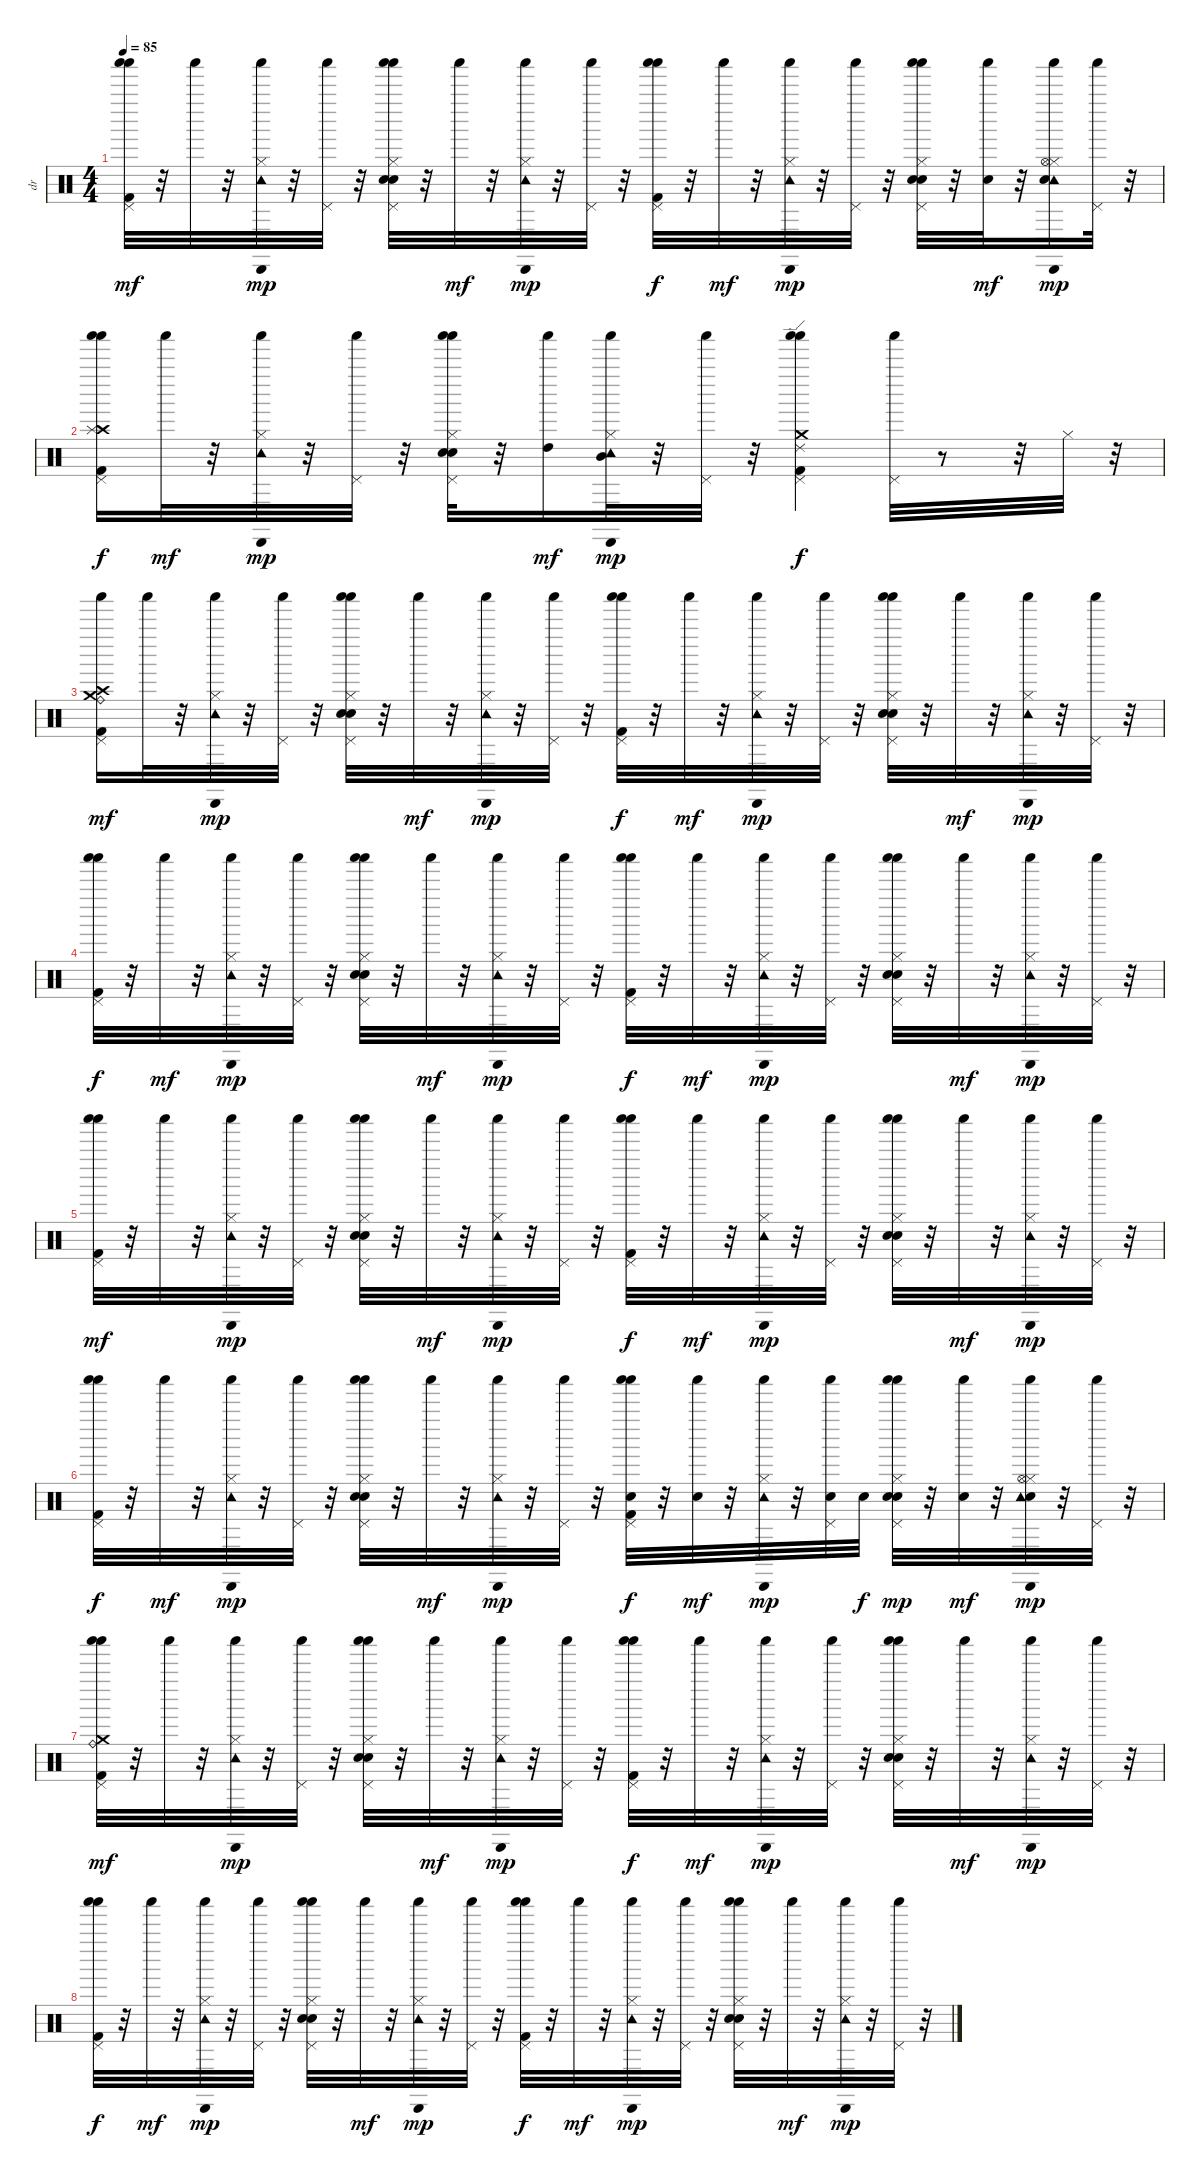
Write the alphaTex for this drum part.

\track ("dr" "dr") {instrument percussion}
\staff {score}
\articulation defaults
\ts (4 4)
\tempo 85
\clef neutral
\ks c
("Pedal Hi-Hat (hit)" "Shaker (hit)" "Shaker (hit)" "Kick (hit) 2").32{dy mf} r.32 "Shaker (hit)".32 r.32 ("Hi-Hat (closed)" "Cabasa (hit)" "Tambourine (hit)" "Shaker (hit)").32{dy mp} r.32 ("Pedal Hi-Hat (hit)" "Shaker (hit)").32 r.32 ("Pedal Hi-Hat (hit)" "Shaker (hit)" "Shaker (hit)" "Hi-Hat (closed)" "Electric Snare (hit)" "Snare (hit) 2").32 r.32 "Shaker (hit)".32{dy mf} r.32 ("Hi-Hat (closed)" "Cabasa (hit)" "Tambourine (hit)" "Shaker (hit)").32{dy mp} r.32 ("Pedal Hi-Hat (hit)" "Shaker (hit)").32 r.32 ("Pedal Hi-Hat (hit)" "Shaker (hit)" "Shaker (hit)" "Kick (hit) 2").32{dy f} r.32 "Shaker (hit)".32{dy mf} r.32 ("Hi-Hat (closed)" "Cabasa (hit)" "Tambourine (hit)" "Shaker (hit)").32{dy mp} r.32 ("Pedal Hi-Hat (hit)" "Shaker (hit)").32 r.32 ("Electric Snare (hit)" "Pedal Hi-Hat (hit)" "Shaker (hit)" "Shaker (hit)" "Hi-Hat (closed)" "Snare (hit) 2").32 r.32 ("Shaker (hit)" "Snare (hit) 2").32{dy mf} r.32 ("Hi-Hat (closed)" "Cabasa (hit)" "Tambourine (hit)" "Shaker (hit)" "Hi-Hat (open)" "Snare (hit) 2").16{dy mp} ("Pedal Hi-Hat (hit)" "Shaker (hit)").32 r.32 |
("Pedal Hi-Hat (hit)" "Shaker (hit)" "Shaker (hit)" "Kick (hit) 2" "Crash high (hit)" "Splash (hit)").16{dy f} "Shaker (hit)".32{dy mf} r.32 ("Hi-Hat (closed)" "Cabasa (hit)" "Tambourine (hit)" "Shaker (hit)").32{dy mp} r.32 ("Pedal Hi-Hat (hit)" "Shaker (hit)").32 r.32 ("Electric Snare (hit)" "Pedal Hi-Hat (hit)" "Shaker (hit)" "Shaker (hit)" "Hi-Hat (closed)" "Snare (hit) 2").32 r.32 ("Shaker (hit)" "High Tom (hit)").16{dy mf} ("Hi-Hat (closed)" "Cabasa (hit)" "Tambourine (hit)" "Shaker (hit)" "Mid Tom (hit)").32{dy mp} r.32 ("Pedal Hi-Hat (hit)" "Shaker (hit)").32 r.32 ("Pedal Hi-Hat (hit)" "Shaker (hit)" "Shaker (hit)" "Kick (hit) 2" "Ride (edge) 2" "Crash medium (hit)").4{dy f} ("Shaker (hit)" "Pedal Hi-Hat (hit)").32 r.8 r.32 "Hi-Hat (closed)".32 r.32 |
("Kick (hit) 2" "Crash high (hit)" "Ride (bell)" "Crash medium (hit)" "Pedal Hi-Hat (hit)" "Shaker (hit)").16{dy mf} "Shaker (hit)".32 r.32 ("Hi-Hat (closed)" "Tambourine (hit)" "Cabasa (hit)" "Shaker (hit)").32{dy mp} r.32 ("Pedal Hi-Hat (hit)" "Shaker (hit)").32 r.32 ("Electric Snare (hit)" "Pedal Hi-Hat (hit)" "Shaker (hit)" "Shaker (hit)" "Hi-Hat (closed)" "Snare (hit) 2").32 r.32 "Shaker (hit)".32{dy mf} r.32 ("Hi-Hat (closed)" "Tambourine (hit)" "Cabasa (hit)" "Shaker (hit)").32{dy mp} r.32 ("Pedal Hi-Hat (hit)" "Shaker (hit)").32 r.32 ("Pedal Hi-Hat (hit)" "Shaker (hit)" "Shaker (hit)" "Kick (hit) 2").32{dy f} r.32 "Shaker (hit)".32{dy mf} r.32 ("Hi-Hat (closed)" "Tambourine (hit)" "Cabasa (hit)" "Shaker (hit)").32{dy mp} r.32 ("Pedal Hi-Hat (hit)" "Shaker (hit)").32 r.32 ("Electric Snare (hit)" "Pedal Hi-Hat (hit)" "Shaker (hit)" "Shaker (hit)" "Hi-Hat (closed)" "Snare (hit) 2").32 r.32 "Shaker (hit)".32{dy mf} r.32 ("Hi-Hat (closed)" "Tambourine (hit)" "Cabasa (hit)" "Shaker (hit)").32{dy mp} r.32 ("Pedal Hi-Hat (hit)" "Shaker (hit)").32 r.32 |
("Pedal Hi-Hat (hit)" "Shaker (hit)" "Shaker (hit)" "Kick (hit) 2").32{dy f} r.32 "Shaker (hit)".32{dy mf} r.32 ("Hi-Hat (closed)" "Tambourine (hit)" "Cabasa (hit)" "Shaker (hit)").32{dy mp} r.32 ("Pedal Hi-Hat (hit)" "Shaker (hit)").32 r.32 ("Electric Snare (hit)" "Pedal Hi-Hat (hit)" "Shaker (hit)" "Shaker (hit)" "Hi-Hat (closed)" "Snare (hit) 2").32 r.32 "Shaker (hit)".32{dy mf} r.32 ("Hi-Hat (closed)" "Tambourine (hit)" "Cabasa (hit)" "Shaker (hit)").32{dy mp} r.32 ("Pedal Hi-Hat (hit)" "Shaker (hit)").32 r.32 ("Pedal Hi-Hat (hit)" "Shaker (hit)" "Shaker (hit)" "Kick (hit) 2").32{dy f} r.32 "Shaker (hit)".32{dy mf} r.32 ("Hi-Hat (closed)" "Tambourine (hit)" "Cabasa (hit)" "Shaker (hit)").32{dy mp} r.32 ("Pedal Hi-Hat (hit)" "Shaker (hit)").32 r.32 ("Electric Snare (hit)" "Pedal Hi-Hat (hit)" "Shaker (hit)" "Shaker (hit)" "Hi-Hat (closed)" "Snare (hit) 2").32 r.32 "Shaker (hit)".32{dy mf} r.32 ("Hi-Hat (closed)" "Tambourine (hit)" "Cabasa (hit)" "Shaker (hit)").32{dy mp} r.32 ("Pedal Hi-Hat (hit)" "Shaker (hit)").32 r.32 |
("Pedal Hi-Hat (hit)" "Shaker (hit)" "Shaker (hit)" "Kick (hit) 2").32{dy mf} r.32 "Shaker (hit)".32 r.32 ("Hi-Hat (closed)" "Cabasa (hit)" "Tambourine (hit)" "Shaker (hit)").32{dy mp} r.32 ("Pedal Hi-Hat (hit)" "Shaker (hit)").32 r.32 ("Electric Snare (hit)" "Pedal Hi-Hat (hit)" "Shaker (hit)" "Shaker (hit)" "Hi-Hat (closed)" "Snare (hit) 2").32 r.32 "Shaker (hit)".32{dy mf} r.32 ("Hi-Hat (closed)" "Tambourine (hit)" "Cabasa (hit)" "Shaker (hit)").32{dy mp} r.32 ("Pedal Hi-Hat (hit)" "Shaker (hit)").32 r.32 ("Pedal Hi-Hat (hit)" "Shaker (hit)" "Shaker (hit)" "Kick (hit) 2").32{dy f} r.32 "Shaker (hit)".32{dy mf} r.32 ("Hi-Hat (closed)" "Cabasa (hit)" "Tambourine (hit)" "Shaker (hit)").32{dy mp} r.32 ("Pedal Hi-Hat (hit)" "Shaker (hit)").32 r.32 ("Electric Snare (hit)" "Pedal Hi-Hat (hit)" "Shaker (hit)" "Shaker (hit)" "Hi-Hat (closed)" "Snare (hit) 2").32 r.32 "Shaker (hit)".32{dy mf} r.32 ("Hi-Hat (closed)" "Cabasa (hit)" "Tambourine (hit)" "Shaker (hit)").32{dy mp} r.32 ("Pedal Hi-Hat (hit)" "Shaker (hit)").32 r.32 |
("Pedal Hi-Hat (hit)" "Shaker (hit)" "Shaker (hit)" "Kick (hit) 2").32{dy f} r.32 "Shaker (hit)".32{dy mf} r.32 ("Hi-Hat (closed)" "Cabasa (hit)" "Tambourine (hit)" "Shaker (hit)").32{dy mp} r.32 ("Pedal Hi-Hat (hit)" "Shaker (hit)").32 r.32 ("Pedal Hi-Hat (hit)" "Shaker (hit)" "Shaker (hit)" "Hi-Hat (closed)" "Electric Snare (hit)" "Snare (hit) 2").32 r.32 "Shaker (hit)".32{dy mf} r.32 ("Hi-Hat (closed)" "Cabasa (hit)" "Tambourine (hit)" "Shaker (hit)").32{dy mp} r.32 ("Pedal Hi-Hat (hit)" "Shaker (hit)").32 r.32 ("Pedal Hi-Hat (hit)" "Shaker (hit)" "Shaker (hit)" "Kick (hit) 2" "Snare (hit) 2").32{dy f} r.32 ("Shaker (hit)" "Snare (hit) 2").32{dy mf} r.32 ("Hi-Hat (closed)" "Cabasa (hit)" "Tambourine (hit)" "Shaker (hit)").32{dy mp} r.32 ("Pedal Hi-Hat (hit)" "Shaker (hit)" "Snare (hit) 2").32 "Snare (hit) 2".32{dy f} ("Electric Snare (hit)" "Pedal Hi-Hat (hit)" "Shaker (hit)" "Shaker (hit)" "Hi-Hat (closed)" "Snare (hit) 2").32{dy mp} r.32 ("Shaker (hit)" "Snare (hit) 2").32{dy mf} r.32 ("Snare (hit) 2" "Hi-Hat (closed)" "Cabasa (hit)" "Tambourine (hit)" "Shaker (hit)" "Hi-Hat (open)").32{dy mp} r.32 ("Pedal Hi-Hat (hit)" "Shaker (hit)").32 r.32 |
("Kick (hit) 2" "Ride (bell)" "Crash medium (hit)" "Pedal Hi-Hat (hit)" "Shaker (hit)" "Shaker (hit)").32{dy mf} r.32 "Shaker (hit)".32 r.32 ("Hi-Hat (closed)" "Tambourine (hit)" "Cabasa (hit)" "Shaker (hit)").32{dy mp} r.32 ("Pedal Hi-Hat (hit)" "Shaker (hit)").32 r.32 ("Electric Snare (hit)" "Pedal Hi-Hat (hit)" "Shaker (hit)" "Shaker (hit)" "Hi-Hat (closed)" "Snare (hit) 2").32 r.32 "Shaker (hit)".32{dy mf} r.32 ("Hi-Hat (closed)" "Tambourine (hit)" "Cabasa (hit)" "Shaker (hit)").32{dy mp} r.32 ("Pedal Hi-Hat (hit)" "Shaker (hit)").32 r.32 ("Pedal Hi-Hat (hit)" "Shaker (hit)" "Shaker (hit)" "Kick (hit) 2").32{dy f} r.32 "Shaker (hit)".32{dy mf} r.32 ("Hi-Hat (closed)" "Tambourine (hit)" "Cabasa (hit)" "Shaker (hit)").32{dy mp} r.32 ("Pedal Hi-Hat (hit)" "Shaker (hit)").32 r.32 ("Electric Snare (hit)" "Pedal Hi-Hat (hit)" "Shaker (hit)" "Shaker (hit)" "Hi-Hat (closed)" "Snare (hit) 2").32 r.32 "Shaker (hit)".32{dy mf} r.32 ("Hi-Hat (closed)" "Tambourine (hit)" "Cabasa (hit)" "Shaker (hit)").32{dy mp} r.32 ("Pedal Hi-Hat (hit)" "Shaker (hit)").32 r.32 |
("Pedal Hi-Hat (hit)" "Shaker (hit)" "Shaker (hit)" "Kick (hit) 2").32{dy f} r.32 "Shaker (hit)".32{dy mf} r.32 ("Hi-Hat (closed)" "Tambourine (hit)" "Cabasa (hit)" "Shaker (hit)").32{dy mp} r.32 ("Pedal Hi-Hat (hit)" "Shaker (hit)").32 r.32 ("Electric Snare (hit)" "Pedal Hi-Hat (hit)" "Shaker (hit)" "Shaker (hit)" "Hi-Hat (closed)" "Snare (hit) 2").32 r.32 "Shaker (hit)".32{dy mf} r.32 ("Hi-Hat (closed)" "Tambourine (hit)" "Cabasa (hit)" "Shaker (hit)").32{dy mp} r.32 ("Pedal Hi-Hat (hit)" "Shaker (hit)").32 r.32 ("Pedal Hi-Hat (hit)" "Shaker (hit)" "Shaker (hit)" "Kick (hit) 2").32{dy f} r.32 "Shaker (hit)".32{dy mf} r.32 ("Hi-Hat (closed)" "Tambourine (hit)" "Cabasa (hit)" "Shaker (hit)").32{dy mp} r.32 ("Pedal Hi-Hat (hit)" "Shaker (hit)").32 r.32 ("Electric Snare (hit)" "Pedal Hi-Hat (hit)" "Shaker (hit)" "Shaker (hit)" "Hi-Hat (closed)" "Snare (hit) 2").32 r.32 "Shaker (hit)".32{dy mf} r.32 ("Hi-Hat (closed)" "Tambourine (hit)" "Cabasa (hit)" "Shaker (hit)").32{dy mp} r.32 ("Pedal Hi-Hat (hit)" "Shaker (hit)").32 r.32
